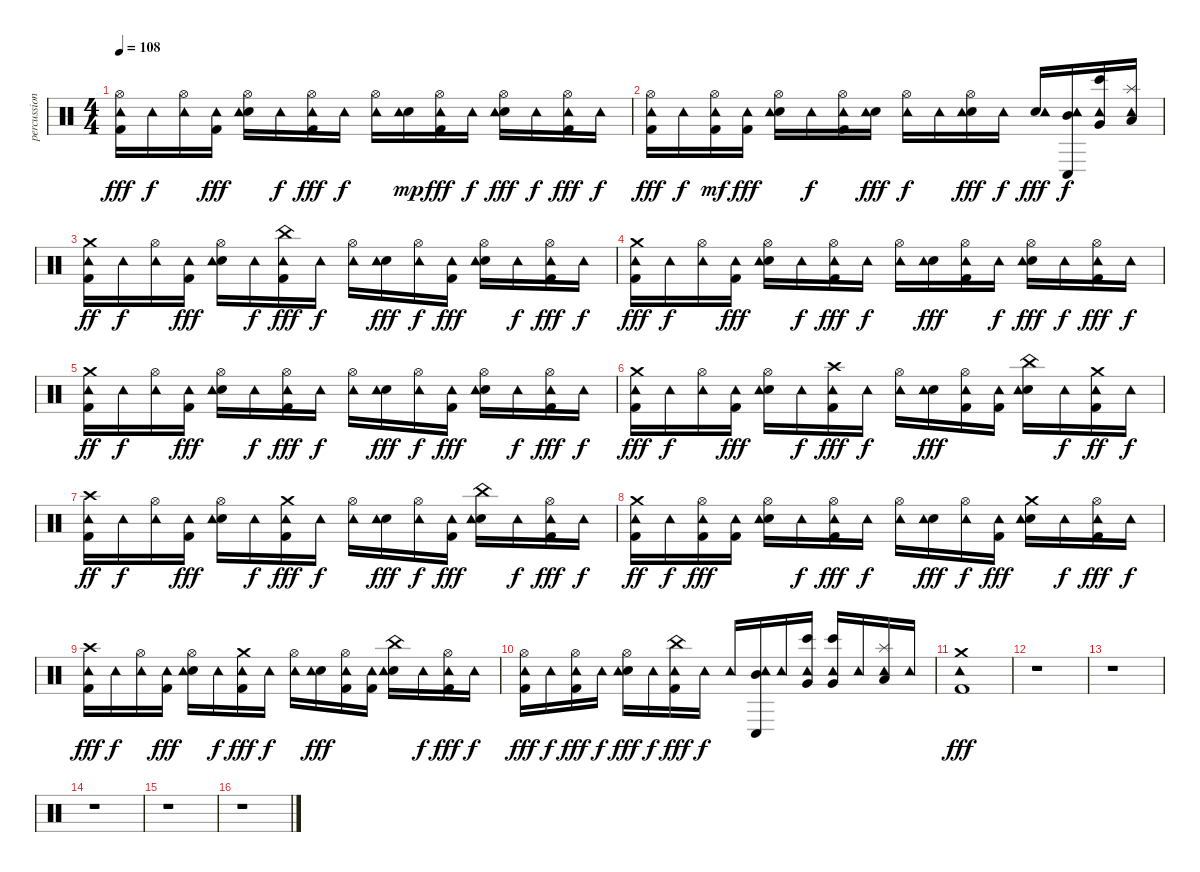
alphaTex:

\track ("percussion" "percussion") {instrument percussion}
\staff {score}
\articulation defaults
\ts (4 4)
\tempo 108
\clef neutral
\ks c
("Hi-Hat (open)" "Kick (hit) 2" "Tambourine (hit)").16{dy fff} "Tambourine (hit)".16{dy f} ("Hi-Hat (open)" "Tambourine (hit)").16 ("Kick (hit) 2" "Tambourine (hit)").16{dy fff} ("Hi-Hat (open)" "Electric Snare (hit)" "Tambourine (hit)").16 "Tambourine (hit)".16{dy f} ("Hi-Hat (open)" "Kick (hit) 2" "Tambourine (hit)").16{dy fff} "Tambourine (hit)".16{dy f} ("Hi-Hat (open)" "Tambourine (hit)").16 ("Electric Snare (hit)" "Tambourine (hit)").16{dy mp} ("Kick (hit) 2" "Hi-Hat (open)" "Tambourine (hit)").16{dy fff} "Tambourine (hit)".16{dy f} ("Hi-Hat (open)" "Electric Snare (hit)" "Tambourine (hit)").16{dy fff} "Tambourine (hit)".16{dy f} ("Kick (hit) 2" "Hi-Hat (open)" "Tambourine (hit)").16{dy fff} "Tambourine (hit)".16{dy f} |
("Hi-Hat (open)" "Kick (hit) 2" "Tambourine (hit)").16{dy fff} "Tambourine (hit)".16{dy f} ("Hi-Hat (open)" "Kick (hit) 2" "Tambourine (hit)").16{dy mf} ("Kick (hit) 2" "Tambourine (hit)").16{dy fff} ("Hi-Hat (open)" "Electric Snare (hit)" "Tambourine (hit)").16 "Tambourine (hit)".16{dy f} ("Kick (hit) 2" "Hi-Hat (open)" "Tambourine (hit)").16 ("Electric Snare (hit)" "Tambourine (hit)").16{dy fff} ("Hi-Hat (open)" "Tambourine (hit)").16{dy f} "Tambourine (hit)".16 ("Hi-Hat (open)" "Electric Snare (hit)" "Tambourine (hit)").16{dy fff} "Tambourine (hit)".16{dy f} ("Electric Snare (hit)" "Tambourine (hit)").16{dy fff} ("Tambourine (hit)" "Conga low (hit)" "Mid Tom (hit)").16{dy f} ("Tambourine (hit)" "Bongo High (hit)" "Very Low Tom (hit)").16 ("Tambourine (hit)" "Splash (hit)" "Low Floor Tom (hit)").16 |
("Kick (hit) 2" "Crash medium (hit)" "Tambourine (hit)").16{dy ff} "Tambourine (hit)".16{dy f} ("Hi-Hat (open)" "Tambourine (hit)").16 ("Kick (hit) 2" "Tambourine (hit)").16{dy fff} ("Hi-Hat (open)" "Electric Snare (hit)" "Tambourine (hit)").16 "Tambourine (hit)".16{dy f} ("China (hit)" "Kick (hit) 2" "Tambourine (hit)").16{dy fff} "Tambourine (hit)".16{dy f} ("Hi-Hat (open)" "Tambourine (hit)").16 ("Electric Snare (hit)" "Tambourine (hit)").16{dy fff} ("Hi-Hat (open)" "Tambourine (hit)").16{dy f} ("Kick (hit) 2" "Tambourine (hit)").16{dy fff} ("Hi-Hat (open)" "Electric Snare (hit)" "Tambourine (hit)").16 "Tambourine (hit)".16{dy f} ("Hi-Hat (open)" "Kick (hit) 2" "Tambourine (hit)").16{dy fff} "Tambourine (hit)".16{dy f} |
("Crash medium (hit)" "Kick (hit) 2" "Tambourine (hit)").16{dy fff} "Tambourine (hit)".16{dy f} ("Hi-Hat (open)" "Tambourine (hit)").16 ("Kick (hit) 2" "Tambourine (hit)").16{dy fff} ("Hi-Hat (open)" "Electric Snare (hit)" "Tambourine (hit)").16 "Tambourine (hit)".16{dy f} ("Hi-Hat (open)" "Kick (hit) 2" "Tambourine (hit)").16{dy fff} "Tambourine (hit)".16{dy f} ("Hi-Hat (open)" "Tambourine (hit)").16 ("Electric Snare (hit)" "Tambourine (hit)").16{dy fff} ("Kick (hit) 2" "Hi-Hat (open)" "Tambourine (hit)").16 "Tambourine (hit)".16{dy f} ("Hi-Hat (open)" "Electric Snare (hit)" "Tambourine (hit)").16{dy fff} "Tambourine (hit)".16{dy f} ("Kick (hit) 2" "Hi-Hat (open)" "Tambourine (hit)").16{dy fff} "Tambourine (hit)".16{dy f} |
("Kick (hit) 2" "Crash medium (hit)" "Tambourine (hit)").16{dy ff} "Tambourine (hit)".16{dy f} ("Hi-Hat (open)" "Tambourine (hit)").16 ("Kick (hit) 2" "Tambourine (hit)").16{dy fff} ("Hi-Hat (open)" "Electric Snare (hit)" "Tambourine (hit)").16 "Tambourine (hit)".16{dy f} ("Hi-Hat (open)" "Kick (hit) 2" "Tambourine (hit)").16{dy fff} "Tambourine (hit)".16{dy f} ("Hi-Hat (open)" "Tambourine (hit)").16 ("Electric Snare (hit)" "Tambourine (hit)").16{dy fff} ("Hi-Hat (open)" "Tambourine (hit)").16{dy f} ("Kick (hit) 2" "Tambourine (hit)").16{dy fff} ("Hi-Hat (open)" "Electric Snare (hit)" "Tambourine (hit)").16 "Tambourine (hit)".16{dy f} ("Kick (hit) 2" "Hi-Hat (open)" "Tambourine (hit)").16{dy fff} "Tambourine (hit)".16{dy f} |
("Crash medium (hit)" "Kick (hit) 2" "Tambourine (hit)").16{dy fff} "Tambourine (hit)".16{dy f} ("Hi-Hat (open)" "Tambourine (hit)").16 ("Kick (hit) 2" "Tambourine (hit)").16{dy fff} ("Hi-Hat (open)" "Electric Snare (hit)" "Tambourine (hit)").16 "Tambourine (hit)".16{dy f} ("Crash high (hit)" "Kick (hit) 2" "Tambourine (hit)").16{dy fff} "Tambourine (hit)".16{dy f} ("Hi-Hat (open)" "Tambourine (hit)").16 ("Electric Snare (hit)" "Tambourine (hit)").16{dy fff} ("Kick (hit) 2" "Hi-Hat (open)" "Tambourine (hit)").16 ("Kick (hit) 2" "Tambourine (hit)").16 ("China (hit)" "Electric Snare (hit)" "Tambourine (hit)").16 "Tambourine (hit)".16{dy f} ("Kick (hit) 2" "Crash medium (hit)" "Tambourine (hit)").16{dy ff} "Tambourine (hit)".16{dy f} |
("Kick (hit) 2" "Crash high (hit)" "Tambourine (hit)").16{dy ff} "Tambourine (hit)".16{dy f} ("Hi-Hat (open)" "Tambourine (hit)").16 ("Kick (hit) 2" "Tambourine (hit)").16{dy fff} ("Hi-Hat (open)" "Electric Snare (hit)" "Tambourine (hit)").16 "Tambourine (hit)".16{dy f} ("Crash medium (hit)" "Kick (hit) 2" "Tambourine (hit)").16{dy fff} "Tambourine (hit)".16{dy f} ("Hi-Hat (open)" "Tambourine (hit)").16 ("Electric Snare (hit)" "Tambourine (hit)").16{dy fff} ("Hi-Hat (open)" "Tambourine (hit)").16{dy f} ("Kick (hit) 2" "Tambourine (hit)").16{dy fff} ("China (hit)" "Electric Snare (hit)" "Tambourine (hit)").16 "Tambourine (hit)".16{dy f} ("Kick (hit) 2" "Hi-Hat (open)" "Tambourine (hit)").16{dy fff} "Tambourine (hit)".16{dy f} |
("Kick (hit) 2" "Crash medium (hit)" "Tambourine (hit)").16{dy ff} "Tambourine (hit)".16{dy f} ("Kick (hit) 2" "Hi-Hat (open)" "Tambourine (hit)").16{dy fff} ("Kick (hit) 2" "Tambourine (hit)").16 ("Hi-Hat (open)" "Electric Snare (hit)" "Tambourine (hit)").16 "Tambourine (hit)".16{dy f} ("Hi-Hat (open)" "Kick (hit) 2" "Tambourine (hit)").16{dy fff} "Tambourine (hit)".16{dy f} ("Hi-Hat (open)" "Tambourine (hit)").16 ("Electric Snare (hit)" "Tambourine (hit)").16{dy fff} ("Hi-Hat (open)" "Tambourine (hit)").16{dy f} ("Kick (hit) 2" "Tambourine (hit)").16{dy fff} ("Crash medium (hit)" "Electric Snare (hit)" "Tambourine (hit)").16 "Tambourine (hit)".16{dy f} ("Kick (hit) 2" "Hi-Hat (open)" "Tambourine (hit)").16{dy fff} "Tambourine (hit)".16{dy f} |
("Crash high (hit)" "Kick (hit) 2" "Tambourine (hit)").16{dy fff} "Tambourine (hit)".16{dy f} ("Hi-Hat (open)" "Tambourine (hit)").16 ("Kick (hit) 2" "Tambourine (hit)").16{dy fff} ("Hi-Hat (open)" "Electric Snare (hit)" "Tambourine (hit)").16 "Tambourine (hit)".16{dy f} ("Crash medium (hit)" "Kick (hit) 2" "Tambourine (hit)").16{dy fff} "Tambourine (hit)".16{dy f} ("Hi-Hat (open)" "Tambourine (hit)").16 ("Electric Snare (hit)" "Tambourine (hit)").16{dy fff} ("Kick (hit) 2" "Hi-Hat (open)" "Tambourine (hit)").16 ("Kick (hit) 2" "Tambourine (hit)").16 ("China (hit)" "Electric Snare (hit)" "Tambourine (hit)").16 "Tambourine (hit)".16{dy f} ("Kick (hit) 2" "Hi-Hat (open)" "Tambourine (hit)").16{dy fff} "Tambourine (hit)".16{dy f} |
("Hi-Hat (open)" "Kick (hit) 2" "Tambourine (hit)").16{dy fff} "Tambourine (hit)".16{dy f} ("Hi-Hat (open)" "Kick (hit) 2" "Tambourine (hit)").16{dy fff} "Tambourine (hit)".16{dy f} ("Hi-Hat (open)" "Electric Snare (hit)" "Tambourine (hit)").16{dy fff} "Tambourine (hit)".16{dy f} ("China (hit)" "Kick (hit) 2" "Tambourine (hit)").16{dy fff} "Tambourine (hit)".16{dy f} "Tambourine (hit)".16 ("Tambourine (hit)" "Conga low (hit)" "Mid Tom (hit)").16 "Tambourine (hit)".16 ("Tambourine (hit)" "Bongo High (hit)" "Very Low Tom (hit)").16 ("Tambourine (hit)" "Bongo High (hit)" "Very Low Tom (hit)").16 "Tambourine (hit)".16 ("Tambourine (hit)" "Splash (hit)" "Low Floor Tom (hit)").16 "Tambourine (hit)".16 |
("Crash medium (hit)" "Kick (hit) 2" "Tambourine (hit)").1{dy fff} |
r.1 |
r.1 |
r.1 |
r.1 |
r.1
